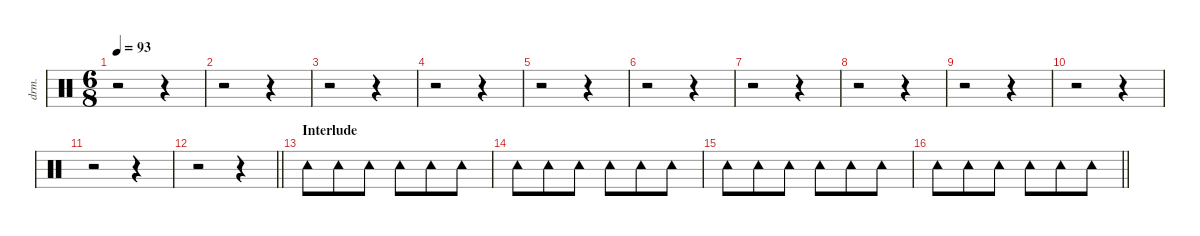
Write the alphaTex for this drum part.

\defaultSystemsLayout 4
\hideDynamics
\bracketExtendMode nobrackets
\otherSystemsTrackNameOrientation horizontal
\track ("Tambourine" "drm.") {instrument percussion}
\staff {score}
\articulation defaults
\ts (6 8)
\tempo 93
\clef neutral
\ks c
r.2{dy fff beam Down} r.4{beam Down} |
r.2{beam Down} r.4{beam Down} |
r.2{beam Down} r.4{beam Down} |
r.2{beam Down} r.4{beam Down} |
r.2{beam Down} r.4{beam Down} |
r.2{beam Down} r.4{beam Down} |
r.2{beam Down} r.4{beam Down} |
r.2{beam Down} r.4{beam Down} |
r.2{beam Down} r.4{beam Down} |
r.2{beam Down} r.4{beam Down} |
r.2{beam Down} r.4{beam Down} |
\barLineRight lightlight
r.2{beam Down} r.4{beam Down} |
\section ("" "Interlude")
"Tambourine (hit)".8{beam Down} "Tambourine (hit)".8{beam Down} "Tambourine (hit)".8{beam Down} "Tambourine (hit)".8{beam Down} "Tambourine (hit)".8{beam Down} "Tambourine (hit)".8{beam Down} |
"Tambourine (hit)".8{beam Down} "Tambourine (hit)".8{beam Down} "Tambourine (hit)".8{beam Down} "Tambourine (hit)".8{beam Down} "Tambourine (hit)".8{beam Down} "Tambourine (hit)".8{beam Down} |
"Tambourine (hit)".8{beam Down} "Tambourine (hit)".8{beam Down} "Tambourine (hit)".8{beam Down} "Tambourine (hit)".8{beam Down} "Tambourine (hit)".8{beam Down} "Tambourine (hit)".8{beam Down} |
\barLineRight lightlight "Tambourine (hit)".8{beam Down} "Tambourine (hit)".8{beam Down} "Tambourine (hit)".8{beam Down} "Tambourine (hit)".8{beam Down} "Tambourine (hit)".8{beam Down} "Tambourine (hit)".8{beam Down}
